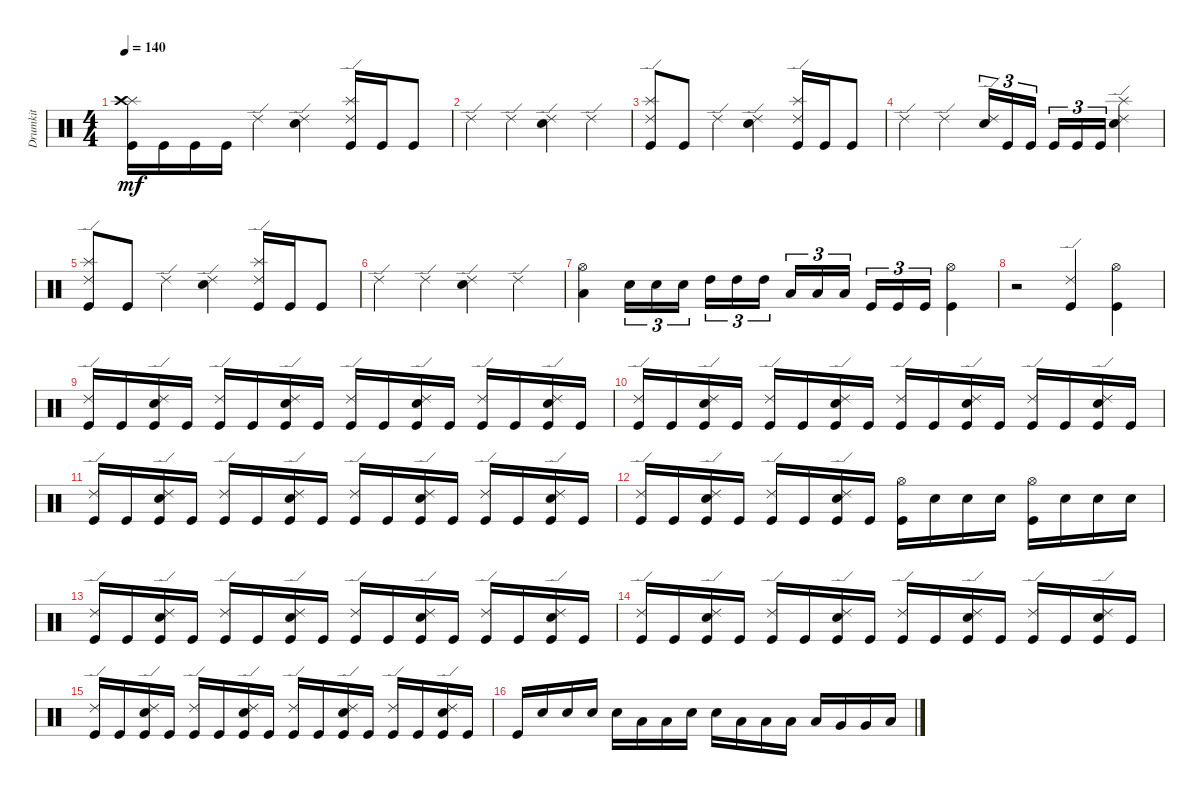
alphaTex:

\track ("Drumkit" "Drumkit") {instrument percussion}
\staff {score}
\articulation defaults
\ts (4 4)
\tempo 140
\clef neutral
\ks c
("Kick (hit)" "Splash (hit)" "Crash high (hit)").16{dy mf} "Kick (hit)".16 "Kick (hit)".16 "Kick (hit)".16 "Ride (edge) 2".4 ("Ride (edge) 2" "Snare (hit) 2").4 ("Ride (edge) 2" "Kick (hit)" "Splash (hit)").16 "Kick (hit)".16 "Kick (hit)".8 |
"Ride (edge) 2".4 "Ride (edge) 2".4 ("Ride (edge) 2" "Snare (hit) 2").4 "Ride (edge) 2".4 |
("Ride (edge) 2" "Splash (hit)" "Kick (hit)").8 "Kick (hit)".8 "Ride (edge) 2".4 ("Ride (edge) 2" "Snare (hit) 2").4 ("Ride (edge) 2" "Kick (hit)" "Splash (hit)").16 "Kick (hit)".16 "Kick (hit)".8 |
"Ride (edge) 2".4 "Ride (edge) 2".4 ("Ride (edge) 2" "Snare (hit) 2").16{tu (3 2)} "Kick (hit)".16{tu (3 2)} "Kick (hit)".16{tu (3 2)} "Kick (hit)".16{tu (3 2)} "Kick (hit)".16{tu (3 2)} "Kick (hit)".16{tu (3 2)} ("Snare (hit) 2" "Ride (edge) 2" "Splash (hit)").4 |
("Ride (edge) 2" "Splash (hit)" "Kick (hit)").8 "Kick (hit)".8 "Ride (edge) 2".4 ("Ride (edge) 2" "Snare (hit) 2").4 ("Ride (edge) 2" "Kick (hit)" "Splash (hit)").16 "Kick (hit)".16 "Kick (hit)".8 |
"Ride (edge) 2".4 "Ride (edge) 2".4 ("Ride (edge) 2" "Snare (hit) 2").4 "Ride (edge) 2".4 |
("Low Tom (hit)" "Hi-Hat (open)").4 "Snare (hit) 2".16{tu (3 2)} "Snare (hit) 2".16{tu (3 2)} "Snare (hit) 2".16{tu (3 2)} "High Tom (hit)".16{tu (3 2)} "High Tom (hit)".16{tu (3 2)} "High Tom (hit)".16{tu (3 2)} "Low Tom (hit)".16{tu (3 2)} "Low Tom (hit)".16{tu (3 2)} "Low Tom (hit)".16{tu (3 2)} "Kick (hit)".16{tu (3 2)} "Kick (hit)".16{tu (3 2)} "Kick (hit)".16{tu (3 2)} ("Kick (hit)" "Hi-Hat (open)").4 |
r.2 ("Kick (hit)" "Ride (edge) 2").4 ("Kick (hit)" "Hi-Hat (open)").4 |
("Kick (hit)" "Ride (edge) 2").16 "Kick (hit)".16 ("Ride (edge) 2" "Snare (hit) 2" "Kick (hit)").16 "Kick (hit)".16 ("Kick (hit)" "Ride (edge) 2").16 "Kick (hit)".16 ("Ride (edge) 2" "Snare (hit) 2" "Kick (hit)").16 "Kick (hit)".16 ("Kick (hit)" "Ride (edge) 2").16 "Kick (hit)".16 ("Ride (edge) 2" "Snare (hit) 2" "Kick (hit)").16 "Kick (hit)".16 ("Kick (hit)" "Ride (edge) 2").16 "Kick (hit)".16 ("Ride (edge) 2" "Snare (hit) 2" "Kick (hit)").16 "Kick (hit)".16 |
("Kick (hit)" "Ride (edge) 2").16 "Kick (hit)".16 ("Ride (edge) 2" "Snare (hit) 2" "Kick (hit)").16 "Kick (hit)".16 ("Kick (hit)" "Ride (edge) 2").16 "Kick (hit)".16 ("Ride (edge) 2" "Snare (hit) 2" "Kick (hit)").16 "Kick (hit)".16 ("Kick (hit)" "Ride (edge) 2").16 "Kick (hit)".16 ("Ride (edge) 2" "Snare (hit) 2" "Kick (hit)").16 "Kick (hit)".16 ("Kick (hit)" "Ride (edge) 2").16 "Kick (hit)".16 ("Ride (edge) 2" "Snare (hit) 2" "Kick (hit)").16 "Kick (hit)".16 |
("Kick (hit)" "Ride (edge) 2").16 "Kick (hit)".16 ("Ride (edge) 2" "Snare (hit) 2" "Kick (hit)").16 "Kick (hit)".16 ("Kick (hit)" "Ride (edge) 2").16 "Kick (hit)".16 ("Ride (edge) 2" "Snare (hit) 2" "Kick (hit)").16 "Kick (hit)".16 ("Kick (hit)" "Ride (edge) 2").16 "Kick (hit)".16 ("Ride (edge) 2" "Snare (hit) 2" "Kick (hit)").16 "Kick (hit)".16 ("Kick (hit)" "Ride (edge) 2").16 "Kick (hit)".16 ("Ride (edge) 2" "Snare (hit) 2" "Kick (hit)").16 "Kick (hit)".16 |
("Kick (hit)" "Ride (edge) 2").16 "Kick (hit)".16 ("Ride (edge) 2" "Snare (hit) 2" "Kick (hit)").16 "Kick (hit)".16 ("Kick (hit)" "Ride (edge) 2").16 "Kick (hit)".16 ("Ride (edge) 2" "Snare (hit) 2" "Kick (hit)").16 "Kick (hit)".16 ("Kick (hit)" "Hi-Hat (open)").16 "Snare (hit) 2".16 "Snare (hit) 2".16 "Snare (hit) 2".16 ("Kick (hit)" "Hi-Hat (open)").16 "Snare (hit) 2".16 "Snare (hit) 2".16 "Snare (hit) 2".16 |
("Kick (hit)" "Ride (edge) 2").16 "Kick (hit)".16 ("Ride (edge) 2" "Snare (hit) 2" "Kick (hit)").16 "Kick (hit)".16 ("Kick (hit)" "Ride (edge) 2").16 "Kick (hit)".16 ("Ride (edge) 2" "Snare (hit) 2" "Kick (hit)").16 "Kick (hit)".16 ("Kick (hit)" "Ride (edge) 2").16 "Kick (hit)".16 ("Ride (edge) 2" "Snare (hit) 2" "Kick (hit)").16 "Kick (hit)".16 ("Kick (hit)" "Ride (edge) 2").16 "Kick (hit)".16 ("Ride (edge) 2" "Snare (hit) 2" "Kick (hit)").16 "Kick (hit)".16 |
("Kick (hit)" "Ride (edge) 2").16 "Kick (hit)".16 ("Ride (edge) 2" "Snare (hit) 2" "Kick (hit)").16 "Kick (hit)".16 ("Kick (hit)" "Ride (edge) 2").16 "Kick (hit)".16 ("Ride (edge) 2" "Snare (hit) 2" "Kick (hit)").16 "Kick (hit)".16 ("Kick (hit)" "Ride (edge) 2").16 "Kick (hit)".16 ("Ride (edge) 2" "Snare (hit) 2" "Kick (hit)").16 "Kick (hit)".16 ("Kick (hit)" "Ride (edge) 2").16 "Kick (hit)".16 ("Ride (edge) 2" "Snare (hit) 2" "Kick (hit)").16 "Kick (hit)".16 |
("Kick (hit)" "Ride (edge) 2").16 "Kick (hit)".16 ("Ride (edge) 2" "Snare (hit) 2" "Kick (hit)").16 "Kick (hit)".16 ("Kick (hit)" "Ride (edge) 2").16 "Kick (hit)".16 ("Ride (edge) 2" "Snare (hit) 2" "Kick (hit)").16 "Kick (hit)".16 ("Kick (hit)" "Ride (edge) 2").16 "Kick (hit)".16 ("Ride (edge) 2" "Snare (hit) 2" "Kick (hit)").16 "Kick (hit)".16 ("Kick (hit)" "Ride (edge) 2").16 "Kick (hit)".16 ("Ride (edge) 2" "Snare (hit) 2" "Kick (hit)").16 "Kick (hit)".16 |
"Kick (hit)".16 "Snare (hit) 2".16 "Snare (hit) 2".16 "Snare (hit) 2".16 "Snare (hit) 2".16 "Low Tom (hit)".16 "Low Tom (hit)".16 "Snare (hit) 2".16 "Snare (hit) 2".16 "Low Tom (hit)".16 "Low Tom (hit)".16 "Low Tom (hit)".16 "Low Tom (hit)".16 "Very Low Tom (hit)".16 "Very Low Tom (hit)".16 "Low Floor Tom (hit)".16
